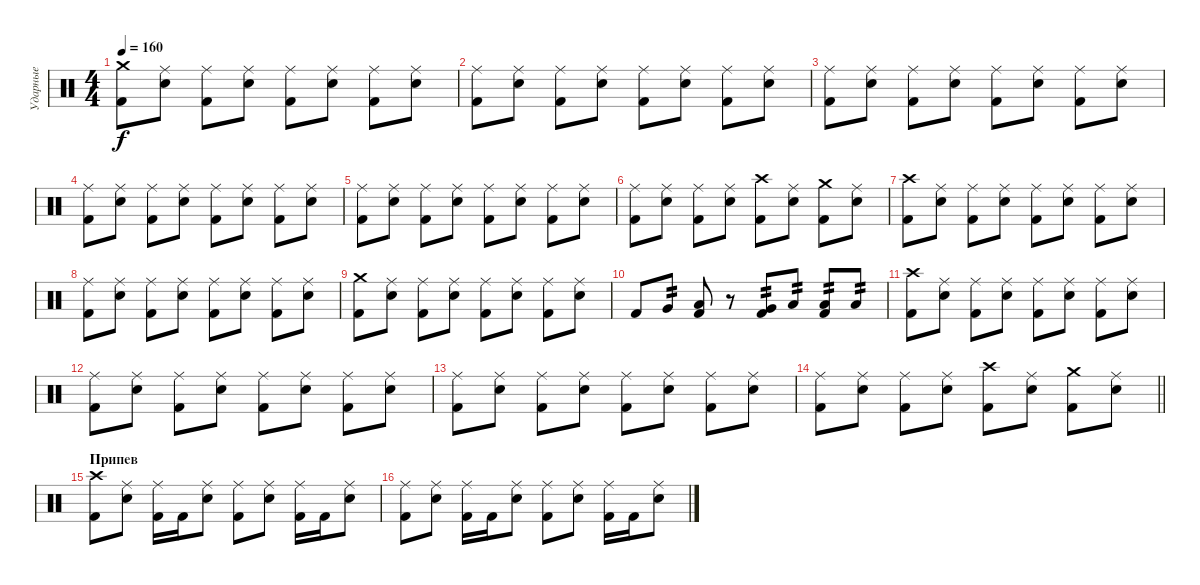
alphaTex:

\track ("Ударные" "Ударные") {instrument percussion}
\staff {score}
\articulation defaults
\ts (4 4)
\tempo 160
\clef neutral
\ks c
("Crash medium (hit)" "Kick (hit) 2").8{dy f} ("Ride (middle)" "Electric Snare (hit)").8 ("Ride (middle)" "Kick (hit) 2").8 ("Ride (middle)" "Electric Snare (hit)").8 ("Ride (middle)" "Kick (hit) 2").8 ("Ride (middle)" "Electric Snare (hit)").8 ("Ride (middle)" "Kick (hit) 2").8 ("Ride (middle)" "Electric Snare (hit)").8 |
("Ride (middle)" "Kick (hit) 2").8 ("Ride (middle)" "Electric Snare (hit)").8 ("Ride (middle)" "Kick (hit) 2").8 ("Ride (middle)" "Electric Snare (hit)").8 ("Ride (middle)" "Kick (hit) 2").8 ("Ride (middle)" "Electric Snare (hit)").8 ("Ride (middle)" "Kick (hit) 2").8 ("Ride (middle)" "Electric Snare (hit)").8 |
("Ride (middle)" "Kick (hit) 2").8 ("Ride (middle)" "Electric Snare (hit)").8 ("Ride (middle)" "Kick (hit) 2").8 ("Ride (middle)" "Electric Snare (hit)").8 ("Ride (middle)" "Kick (hit) 2").8 ("Ride (middle)" "Electric Snare (hit)").8 ("Ride (middle)" "Kick (hit) 2").8 ("Ride (middle)" "Electric Snare (hit)").8 |
("Ride (middle)" "Kick (hit) 2").8 ("Ride (middle)" "Electric Snare (hit)").8 ("Ride (middle)" "Kick (hit) 2").8 ("Ride (middle)" "Electric Snare (hit)").8 ("Ride (middle)" "Kick (hit) 2").8 ("Ride (middle)" "Electric Snare (hit)").8 ("Ride (middle)" "Kick (hit) 2").8 ("Ride (middle)" "Electric Snare (hit)").8 |
("Ride (middle)" "Kick (hit) 2").8 ("Ride (middle)" "Electric Snare (hit)").8 ("Ride (middle)" "Kick (hit) 2").8 ("Ride (middle)" "Electric Snare (hit)").8 ("Ride (middle)" "Kick (hit) 2").8 ("Ride (middle)" "Electric Snare (hit)").8 ("Ride (middle)" "Kick (hit) 2").8 ("Ride (middle)" "Electric Snare (hit)").8 |
("Ride (middle)" "Kick (hit) 2").8 ("Ride (middle)" "Electric Snare (hit)").8 ("Ride (middle)" "Kick (hit) 2").8 ("Ride (middle)" "Electric Snare (hit)").8 ("Crash high (hit)" "Kick (hit) 2").8 ("Ride (middle)" "Electric Snare (hit)").8 ("Crash medium (hit)" "Kick (hit) 2").8 ("Ride (middle)" "Electric Snare (hit)").8 |
("Crash high (hit)" "Kick (hit) 2").8 ("Ride (middle)" "Electric Snare (hit)").8 ("Ride (middle)" "Kick (hit) 2").8 ("Ride (middle)" "Electric Snare (hit)").8 ("Ride (middle)" "Kick (hit) 2").8 ("Ride (middle)" "Electric Snare (hit)").8 ("Ride (middle)" "Kick (hit) 2").8 ("Ride (middle)" "Electric Snare (hit)").8 |
("Ride (middle)" "Kick (hit) 2").8 ("Ride (middle)" "Electric Snare (hit)").8 ("Ride (middle)" "Kick (hit) 2").8 ("Ride (middle)" "Electric Snare (hit)").8 ("Ride (middle)" "Kick (hit) 2").8 ("Ride (middle)" "Electric Snare (hit)").8 ("Ride (middle)" "Kick (hit) 2").8 ("Ride (middle)" "Electric Snare (hit)").8 |
("Crash medium (hit)" "Kick (hit) 2").8 ("Ride (middle)" "Electric Snare (hit)").8 ("Ride (middle)" "Kick (hit) 2").8 ("Ride (middle)" "Electric Snare (hit)").8 ("Ride (middle)" "Kick (hit) 2").8 ("Ride (middle)" "Electric Snare (hit)").8 ("Ride (middle)" "Kick (hit) 2").8 ("Ride (middle)" "Electric Snare (hit)").8 |
"Kick (hit) 2".8 "Very Low Tom (hit)".8{tp 2} ("Low Tom (hit)" "Kick (hit) 2").8 r.8 ("Very Low Tom (hit)" "Kick (hit) 2").8{tp 2} "Low Tom (hit)".8{tp 2} ("Low Tom (hit)" "Kick (hit) 2").8{tp 2} "Low Tom (hit)".8{tp 2} |
("Crash high (hit)" "Kick (hit) 2").8 ("Ride (middle)" "Electric Snare (hit)").8 ("Ride (middle)" "Kick (hit) 2").8 ("Ride (middle)" "Electric Snare (hit)").8 ("Ride (middle)" "Kick (hit) 2").8 ("Ride (middle)" "Electric Snare (hit)").8 ("Ride (middle)" "Kick (hit) 2").8 ("Ride (middle)" "Electric Snare (hit)").8 |
("Ride (middle)" "Kick (hit) 2").8 ("Ride (middle)" "Electric Snare (hit)").8 ("Ride (middle)" "Kick (hit) 2").8 ("Ride (middle)" "Electric Snare (hit)").8 ("Ride (middle)" "Kick (hit) 2").8 ("Ride (middle)" "Electric Snare (hit)").8 ("Ride (middle)" "Kick (hit) 2").8 ("Ride (middle)" "Electric Snare (hit)").8 |
("Ride (middle)" "Kick (hit) 2").8 ("Ride (middle)" "Electric Snare (hit)").8 ("Ride (middle)" "Kick (hit) 2").8 ("Ride (middle)" "Electric Snare (hit)").8 ("Ride (middle)" "Kick (hit) 2").8 ("Ride (middle)" "Electric Snare (hit)").8 ("Ride (middle)" "Kick (hit) 2").8 ("Ride (middle)" "Electric Snare (hit)").8 |
\barLineRight lightlight
("Ride (middle)" "Kick (hit) 2").8 ("Ride (middle)" "Electric Snare (hit)").8 ("Ride (middle)" "Kick (hit) 2").8 ("Ride (middle)" "Electric Snare (hit)").8 ("Crash high (hit)" "Kick (hit) 2").8 ("Ride (middle)" "Electric Snare (hit)").8 ("Crash medium (hit)" "Kick (hit) 2").8 ("Ride (middle)" "Electric Snare (hit)").8 |
\section ("" "Припев")
("Crash high (hit)" "Kick (hit) 2").8 ("Ride (middle)" "Electric Snare (hit)").8 ("Ride (middle)" "Kick (hit) 2").16 "Kick (hit) 2".16 ("Ride (middle)" "Electric Snare (hit)").8 ("Ride (middle)" "Kick (hit) 2").8 ("Ride (middle)" "Electric Snare (hit)").8 ("Ride (middle)" "Kick (hit) 2").16 "Kick (hit) 2".16 ("Ride (middle)" "Electric Snare (hit)").8 |
("Ride (middle)" "Kick (hit) 2").8 ("Ride (middle)" "Electric Snare (hit)").8 ("Ride (middle)" "Kick (hit) 2").16 "Kick (hit) 2".16 ("Ride (middle)" "Electric Snare (hit)").8 ("Ride (middle)" "Kick (hit) 2").8 ("Ride (middle)" "Electric Snare (hit)").8 ("Ride (middle)" "Kick (hit) 2").16 "Kick (hit) 2".16 ("Ride (middle)" "Electric Snare (hit)").8
